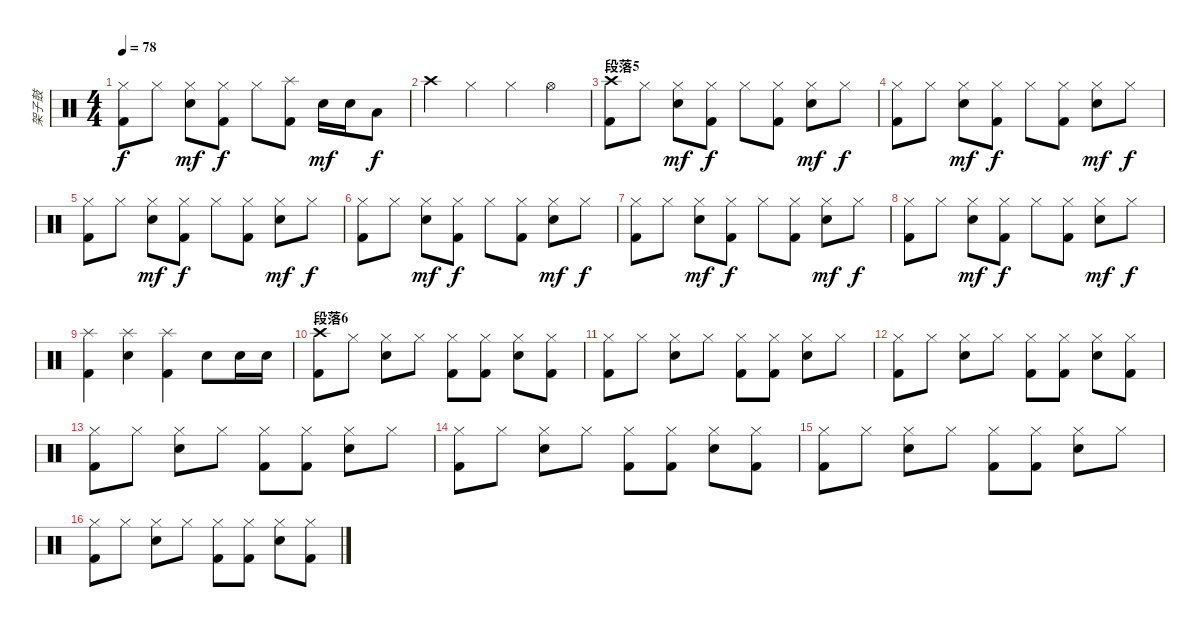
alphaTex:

\track ("架子鼓" "架子鼓") {instrument percussion}
\staff {score}
\articulation defaults
\ts (4 4)
\tempo 78
\clef neutral
\ks c
("Hi-Hat (closed)" "Kick (hit) 2").8{dy f} "Hi-Hat (closed)".8 ("Hi-Hat (closed)" "Electric Snare (hit)").8{dy mf} ("Hi-Hat (closed)" "Kick (hit) 2").8{dy f} "Hi-Hat (closed)".8 ("Splash (hit)" "Kick (hit) 2").8 "Electric Snare (hit)".16{dy mf} "Electric Snare (hit)".16 "Low Tom (hit)".8{dy f} |
"Crash high (hit)".4 "Hi-Hat (closed)".4 "Hi-Hat (closed)".4 "Hi-Hat (open)".4 |
\section ("" "段落5")
("Crash high (hit)" "Kick (hit) 2").8 "Hi-Hat (closed)".8 ("Hi-Hat (closed)" "Electric Snare (hit)").8{dy mf} ("Hi-Hat (closed)" "Kick (hit) 2").8{dy f} "Hi-Hat (closed)".8 ("Hi-Hat (closed)" "Kick (hit) 2").8 ("Hi-Hat (closed)" "Electric Snare (hit)").8{dy mf} "Hi-Hat (closed)".8{dy f} |
("Hi-Hat (closed)" "Kick (hit) 2").8 "Hi-Hat (closed)".8 ("Hi-Hat (closed)" "Electric Snare (hit)").8{dy mf} ("Hi-Hat (closed)" "Kick (hit) 2").8{dy f} "Hi-Hat (closed)".8 ("Hi-Hat (closed)" "Kick (hit) 2").8 ("Hi-Hat (closed)" "Electric Snare (hit)").8{dy mf} "Hi-Hat (closed)".8{dy f} |
("Hi-Hat (closed)" "Kick (hit) 2").8 "Hi-Hat (closed)".8 ("Hi-Hat (closed)" "Electric Snare (hit)").8{dy mf} ("Hi-Hat (closed)" "Kick (hit) 2").8{dy f} "Hi-Hat (closed)".8 ("Hi-Hat (closed)" "Kick (hit) 2").8 ("Hi-Hat (closed)" "Electric Snare (hit)").8{dy mf} "Hi-Hat (closed)".8{dy f} |
("Hi-Hat (closed)" "Kick (hit) 2").8 "Hi-Hat (closed)".8 ("Hi-Hat (closed)" "Electric Snare (hit)").8{dy mf} ("Hi-Hat (closed)" "Kick (hit) 2").8{dy f} "Hi-Hat (closed)".8 ("Hi-Hat (closed)" "Kick (hit) 2").8 ("Hi-Hat (closed)" "Electric Snare (hit)").8{dy mf} "Hi-Hat (closed)".8{dy f} |
("Hi-Hat (closed)" "Kick (hit) 2").8 "Hi-Hat (closed)".8 ("Hi-Hat (closed)" "Electric Snare (hit)").8{dy mf} ("Hi-Hat (closed)" "Kick (hit) 2").8{dy f} "Hi-Hat (closed)".8 ("Hi-Hat (closed)" "Kick (hit) 2").8 ("Hi-Hat (closed)" "Electric Snare (hit)").8{dy mf} "Hi-Hat (closed)".8{dy f} |
("Hi-Hat (closed)" "Kick (hit) 2").8 "Hi-Hat (closed)".8 ("Hi-Hat (closed)" "Electric Snare (hit)").8{dy mf} ("Hi-Hat (closed)" "Kick (hit) 2").8{dy f} "Hi-Hat (closed)".8 ("Hi-Hat (closed)" "Kick (hit) 2").8 ("Hi-Hat (closed)" "Electric Snare (hit)").8{dy mf} "Hi-Hat (closed)".8{dy f} |
("Splash (hit)" "Kick (hit) 2").4 ("Splash (hit)" "Electric Snare (hit)").4 ("Splash (hit)" "Kick (hit) 2").4 "Electric Snare (hit)".8 "Electric Snare (hit)".16 "Electric Snare (hit)".16 |
\section ("" "段落6")
("Crash high (hit)" "Kick (hit) 2").8 "Hi-Hat (closed)".8 ("Hi-Hat (closed)" "Electric Snare (hit)").8 "Hi-Hat (closed)".8 ("Hi-Hat (closed)" "Kick (hit) 2").8 ("Hi-Hat (closed)" "Kick (hit) 2").8 ("Hi-Hat (closed)" "Electric Snare (hit)").8 ("Hi-Hat (closed)" "Kick (hit) 2").8 |
("Hi-Hat (closed)" "Kick (hit) 2").8 "Hi-Hat (closed)".8 ("Hi-Hat (closed)" "Electric Snare (hit)").8 "Hi-Hat (closed)".8 ("Hi-Hat (closed)" "Kick (hit) 2").8 ("Hi-Hat (closed)" "Kick (hit) 2").8 ("Hi-Hat (closed)" "Electric Snare (hit)").8 "Hi-Hat (closed)".8 |
("Hi-Hat (closed)" "Kick (hit) 2").8 "Hi-Hat (closed)".8 ("Hi-Hat (closed)" "Electric Snare (hit)").8 "Hi-Hat (closed)".8 ("Hi-Hat (closed)" "Kick (hit) 2").8 ("Hi-Hat (closed)" "Kick (hit) 2").8 ("Hi-Hat (closed)" "Electric Snare (hit)").8 ("Hi-Hat (closed)" "Kick (hit) 2").8 |
("Hi-Hat (closed)" "Kick (hit) 2").8 "Hi-Hat (closed)".8 ("Hi-Hat (closed)" "Electric Snare (hit)").8 "Hi-Hat (closed)".8 ("Hi-Hat (closed)" "Kick (hit) 2").8 ("Hi-Hat (closed)" "Kick (hit) 2").8 ("Hi-Hat (closed)" "Electric Snare (hit)").8 "Hi-Hat (closed)".8 |
("Hi-Hat (closed)" "Kick (hit) 2").8 "Hi-Hat (closed)".8 ("Hi-Hat (closed)" "Electric Snare (hit)").8 "Hi-Hat (closed)".8 ("Hi-Hat (closed)" "Kick (hit) 2").8 ("Hi-Hat (closed)" "Kick (hit) 2").8 ("Hi-Hat (closed)" "Electric Snare (hit)").8 ("Hi-Hat (closed)" "Kick (hit) 2").8 |
("Hi-Hat (closed)" "Kick (hit) 2").8 "Hi-Hat (closed)".8 ("Hi-Hat (closed)" "Electric Snare (hit)").8 "Hi-Hat (closed)".8 ("Hi-Hat (closed)" "Kick (hit) 2").8 ("Hi-Hat (closed)" "Kick (hit) 2").8 ("Hi-Hat (closed)" "Electric Snare (hit)").8 "Hi-Hat (closed)".8 |
("Hi-Hat (closed)" "Kick (hit) 2").8 "Hi-Hat (closed)".8 ("Hi-Hat (closed)" "Electric Snare (hit)").8 "Hi-Hat (closed)".8 ("Hi-Hat (closed)" "Kick (hit) 2").8 ("Hi-Hat (closed)" "Kick (hit) 2").8 ("Hi-Hat (closed)" "Electric Snare (hit)").8 ("Hi-Hat (closed)" "Kick (hit) 2").8
